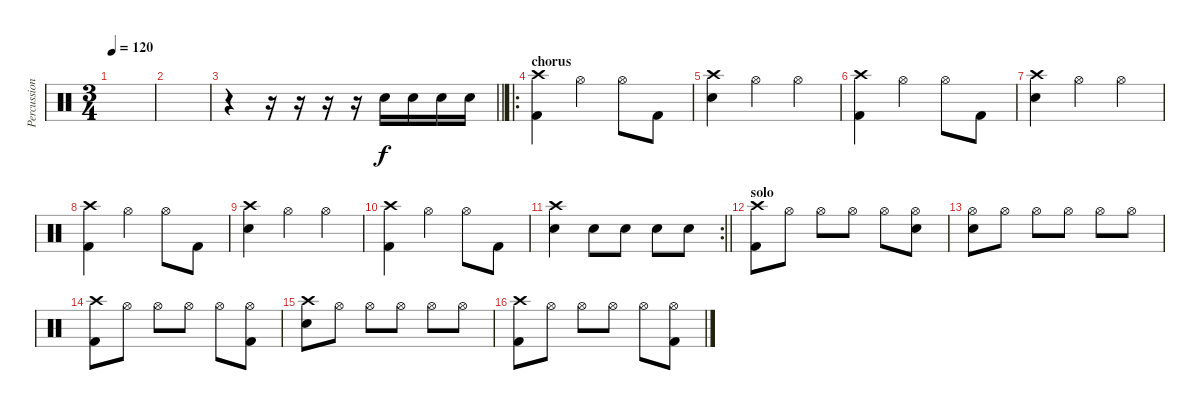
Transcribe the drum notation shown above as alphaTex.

\track ("Percussion" "Percussion") {instrument percussion}
\staff {score}
\articulation defaults
\ts (3 4)
\tempo 120
\clef neutral
\ks c
|
|
\barLineRight lightlight
r.4 r.16 r.16 r.16 r.16 "Snare (hit) 2".16 "Snare (hit) 2".16 "Snare (hit) 2".16 "Snare (hit) 2".16 |
\ro
\section ("" "chorus")
("Crash high (hit)" "Kick (hit) 2").4 "Hi-Hat (open)".4 "Hi-Hat (open)".8 "Kick (hit) 2".8 |
("Crash high (hit)" "Snare (hit) 2").4 "Hi-Hat (open)".4 "Hi-Hat (open)".4 |
("Crash high (hit)" "Kick (hit) 2").4 "Hi-Hat (open)".4 "Hi-Hat (open)".8 "Kick (hit) 2".8 |
("Crash high (hit)" "Snare (hit) 2").4 "Hi-Hat (open)".4 "Hi-Hat (open)".4 |
("Crash high (hit)" "Kick (hit) 2").4 "Hi-Hat (open)".4 "Hi-Hat (open)".8 "Kick (hit) 2".8 |
("Crash high (hit)" "Snare (hit) 2").4 "Hi-Hat (open)".4 "Hi-Hat (open)".4 |
("Crash high (hit)" "Kick (hit) 2").4 "Hi-Hat (open)".4 "Hi-Hat (open)".8 "Kick (hit) 2".8 |
\rc 2
\barLineRight lightlight
("Crash high (hit)" "Snare (hit) 2").4 "Snare (hit) 2".8 "Snare (hit) 2".8 "Snare (hit) 2".8 "Snare (hit) 2".8 |
\section ("" "solo ")
("Crash high (hit)" "Kick (hit) 2").8 "Hi-Hat (open)".8 "Hi-Hat (open)".8 "Hi-Hat (open)".8 "Hi-Hat (open)".8 ("Hi-Hat (open)" "Snare (hit) 2").8 |
("Hi-Hat (open)" "Snare (hit) 2").8 "Hi-Hat (open)".8 "Hi-Hat (open)".8 "Hi-Hat (open)".8 "Hi-Hat (open)".8 "Hi-Hat (open)".8 |
("Crash high (hit)" "Kick (hit) 2").8 "Hi-Hat (open)".8 "Hi-Hat (open)".8 "Hi-Hat (open)".8 "Hi-Hat (open)".8 ("Hi-Hat (open)" "Kick (hit) 2").8 |
("Crash high (hit)" "Snare (hit) 2").8 "Hi-Hat (open)".8 "Hi-Hat (open)".8 "Hi-Hat (open)".8 "Hi-Hat (open)".8 "Hi-Hat (open)".8 |
("Crash high (hit)" "Kick (hit) 2").8 "Hi-Hat (open)".8 "Hi-Hat (open)".8 "Hi-Hat (open)".8 "Hi-Hat (open)".8 ("Hi-Hat (open)" "Kick (hit) 2").8
